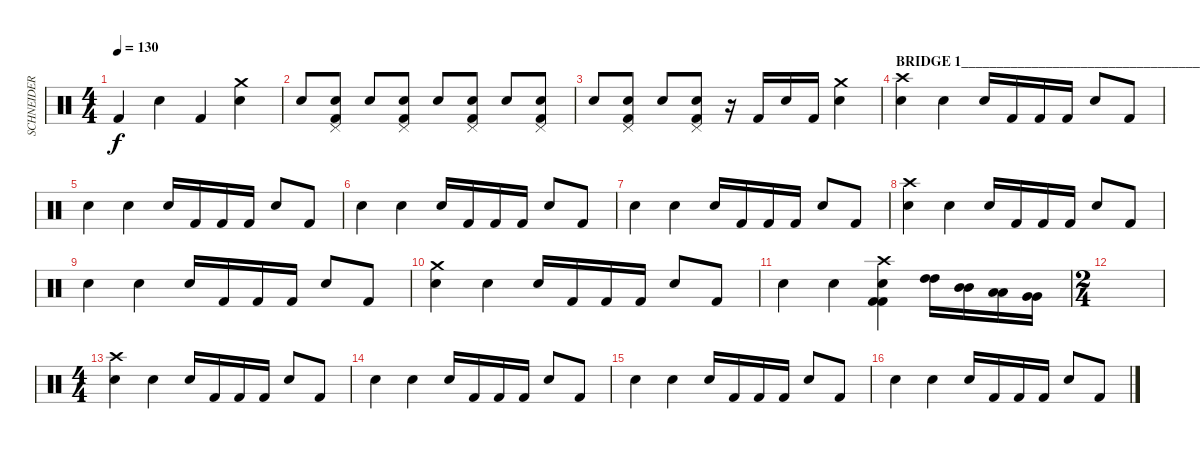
\track ("SCHNEIDER - Drums" "SCHNEIDER ") {instrument percussion}
\staff {score}
\articulation defaults
\ts (4 4)
\tempo 130
\clef neutral
\ks c "Kick (hit) 2".4{dy f} "Snare (hit) 2".4 "Kick (hit) 2".4
("Snare (hit) 2" "Crash medium (hit)").4 |
"Snare (hit) 2".8 ("Snare (hit) 2" "Kick (hit) 2" "Pedal Hi-Hat (hit)").8 "Snare (hit) 2".8 ("Snare (hit) 2" "Kick (hit) 2" "Pedal Hi-Hat (hit)").8 "Snare (hit) 2".8 ("Snare (hit) 2" "Kick (hit) 2" "Pedal Hi-Hat (hit)").8 "Snare (hit) 2".8 ("Snare (hit) 2" "Kick (hit) 2" "Pedal Hi-Hat (hit)").8 |
"Snare (hit) 2".8 ("Snare (hit) 2" "Kick (hit) 2" "Pedal Hi-Hat (hit)").8 "Snare (hit) 2".8 ("Snare (hit) 2" "Kick (hit) 2" "Pedal Hi-Hat (hit)").8 r.16 "Kick (hit) 2".16 "Snare (hit) 2".16 "Kick (hit) 2".16 ("Snare (hit) 2" "Crash medium (hit)").4 |
\section ("" "BRIDGE 1_________________________________________________________________________")
("Snare (hit) 2" "Crash high (hit)").4 "Snare (hit) 2".4 "Snare (hit) 2".16 "Kick (hit) 2".16 "Kick (hit) 2".16 "Kick (hit) 2".16 "Snare (hit) 2".8 "Kick (hit) 2".8 |
"Snare (hit) 2".4 "Snare (hit) 2".4 "Snare (hit) 2".16 "Kick (hit) 2".16 "Kick (hit) 2".16 "Kick (hit) 2".16 "Snare (hit) 2".8 "Kick (hit) 2".8 |
"Snare (hit) 2".4 "Snare (hit) 2".4 "Snare (hit) 2".16 "Kick (hit) 2".16 "Kick (hit) 2".16 "Kick (hit) 2".16 "Snare (hit) 2".8 "Kick (hit) 2".8 |
"Snare (hit) 2".4 "Snare (hit) 2".4 "Snare (hit) 2".16 "Kick (hit) 2".16 "Kick (hit) 2".16 "Kick (hit) 2".16 "Snare (hit) 2".8 "Kick (hit) 2".8 |
("Snare (hit) 2" "Crash high (hit)").4 "Snare (hit) 2".4 "Snare (hit) 2".16 "Kick (hit) 2".16 "Kick (hit) 2".16 "Kick (hit) 2".16 "Snare (hit) 2".8 "Kick (hit) 2".8 |
"Snare (hit) 2".4 "Snare (hit) 2".4 "Snare (hit) 2".16 "Kick (hit) 2".16 "Kick (hit) 2".16 "Kick (hit) 2".16 "Snare (hit) 2".8 "Kick (hit) 2".8 |
("Snare (hit) 2" "Crash medium (hit)").4 "Snare (hit) 2".4 "Snare (hit) 2".16 "Kick (hit) 2".16 "Kick (hit) 2".16 "Kick (hit) 2".16 "Snare (hit) 2".8 "Kick (hit) 2".8 |
"Snare (hit) 2".4 "Snare (hit) 2".4 ("Crash high (hit)" "Snare (hit) 2" "Kick (hit) 2" "Kick (hit) 2").4 ("High Tom (hit)" "High Tom (hit)").16 ("Mid Tom (hit)" "Mid Tom (hit)").16 ("Low Tom (hit)" "Low Tom (hit)").16 ("Very Low Tom (hit)" "Very Low Tom (hit)").16 |
\ts (2 4)
|
\ts (4 4)
("Snare (hit) 2" "Crash high (hit)").4 "Snare (hit) 2".4 "Snare (hit) 2".16 "Kick (hit) 2".16 "Kick (hit) 2".16 "Kick (hit) 2".16 "Snare (hit) 2".8 "Kick (hit) 2".8 |
"Snare (hit) 2".4 "Snare (hit) 2".4 "Snare (hit) 2".16 "Kick (hit) 2".16 "Kick (hit) 2".16 "Kick (hit) 2".16 "Snare (hit) 2".8 "Kick (hit) 2".8 |
"Snare (hit) 2".4 "Snare (hit) 2".4 "Snare (hit) 2".16 "Kick (hit) 2".16 "Kick (hit) 2".16 "Kick (hit) 2".16 "Snare (hit) 2".8 "Kick (hit) 2".8 |
"Snare (hit) 2".4 "Snare (hit) 2".4 "Snare (hit) 2".16 "Kick (hit) 2".16 "Kick (hit) 2".16 "Kick (hit) 2".16 "Snare (hit) 2".8 "Kick (hit) 2".8
